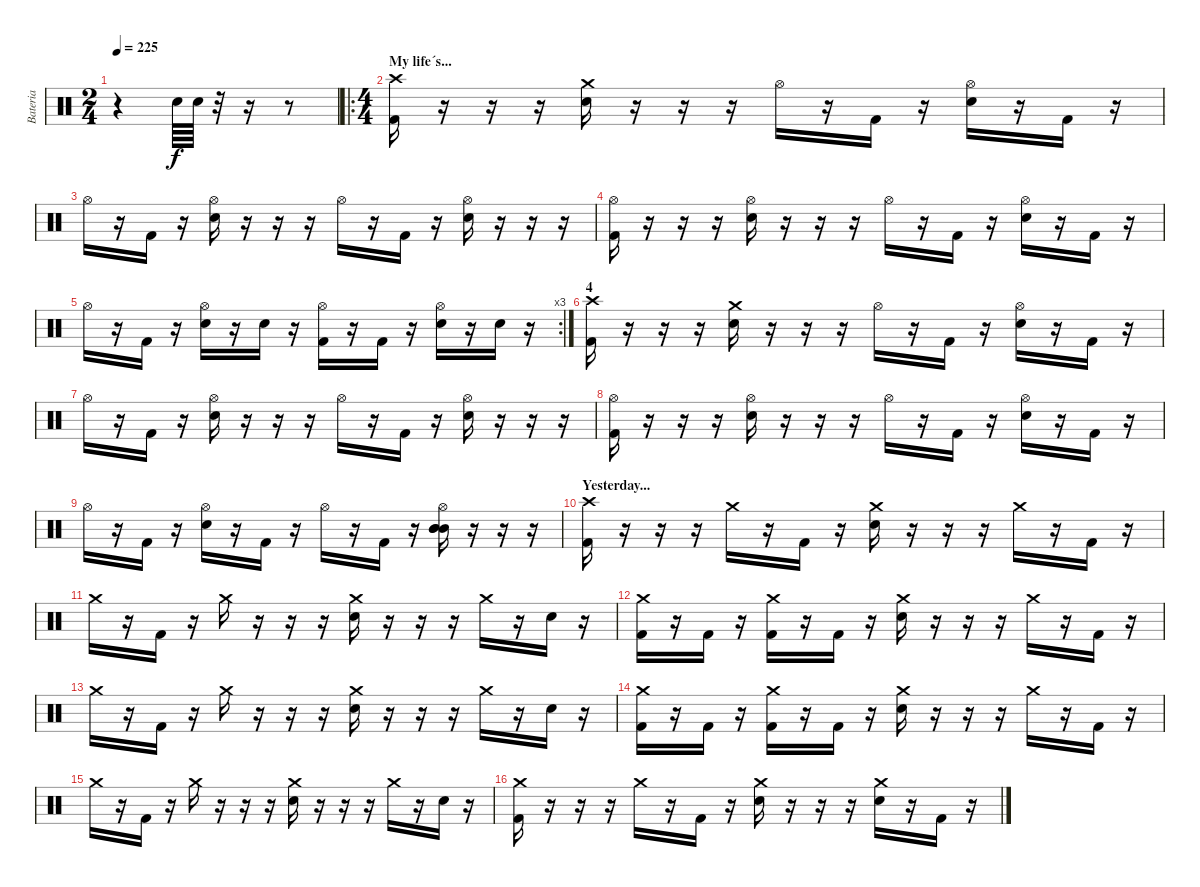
\track ("Bateria" "Bateria") {instrument percussion}
\staff {score}
\articulation defaults
\ts (2 4)
\tempo 225
\clef neutral
\ks c
r.4{dy f} "Electric Snare (hit)".64 "Electric Snare (hit)".64 r.32 r.16 r.8 |
\ro
\ts (4 4)
\section ("" "My life´s...")
("Crash high (hit)" "Kick (hit) 2").16 r.16 r.16 r.16 ("Crash medium (hit)" "Electric Snare (hit)").16 r.16 r.16 r.16 "Hi-Hat (open)".16 r.16 "Kick (hit) 2".16 r.16 ("Hi-Hat (open)" "Electric Snare (hit)").16 r.16 "Kick (hit) 2".16 r.16 |
"Hi-Hat (open)".16 r.16 "Kick (hit) 2".16 r.16 ("Hi-Hat (open)" "Electric Snare (hit)").16 r.16 r.16 r.16 "Hi-Hat (open)".16 r.16 "Kick (hit) 2".16 r.16 ("Hi-Hat (open)" "Electric Snare (hit)").16 r.16 r.16 r.16 |
("Hi-Hat (open)" "Kick (hit) 2").16 r.16 r.16 r.16 ("Hi-Hat (open)" "Electric Snare (hit)").16 r.16 r.16 r.16 "Hi-Hat (open)".16 r.16 "Kick (hit) 2".16 r.16 ("Hi-Hat (open)" "Electric Snare (hit)").16 r.16 "Kick (hit) 2".16 r.16 |
\rc 3 "Hi-Hat (open)".16
r.16 "Kick (hit) 2".16 r.16 ("Hi-Hat (open)" "Electric Snare (hit)").16 r.16 "Electric Snare (hit)".16 r.16 ("Hi-Hat (open)" "Kick (hit) 2").16 r.16 "Kick (hit) 2".16 r.16 ("Hi-Hat (open)" "Electric Snare (hit)").16 r.16 "Electric Snare (hit)".16 r.16 |
\section ("" "4")
("Crash high (hit)" "Kick (hit) 2").16 r.16 r.16 r.16 ("Crash medium (hit)" "Electric Snare (hit)").16 r.16 r.16 r.16 "Hi-Hat (open)".16 r.16 "Kick (hit) 2".16 r.16 ("Hi-Hat (open)" "Electric Snare (hit)").16 r.16 "Kick (hit) 2".16 r.16 |
"Hi-Hat (open)".16 r.16 "Kick (hit) 2".16 r.16 ("Hi-Hat (open)" "Electric Snare (hit)").16 r.16 r.16 r.16 "Hi-Hat (open)".16 r.16 "Kick (hit) 2".16 r.16 ("Hi-Hat (open)" "Electric Snare (hit)").16 r.16 r.16 r.16 |
("Hi-Hat (open)" "Kick (hit) 2").16 r.16 r.16 r.16 ("Hi-Hat (open)" "Electric Snare (hit)").16 r.16 r.16 r.16 "Hi-Hat (open)".16 r.16 "Kick (hit) 2".16 r.16 ("Hi-Hat (open)" "Electric Snare (hit)").16 r.16 "Kick (hit) 2".16 r.16 |
"Hi-Hat (open)".16 r.16 "Kick (hit) 2".16 r.16 ("Hi-Hat (open)" "Electric Snare (hit)").16 r.16 "Kick (hit) 2".16 r.16 "Hi-Hat (open)".16 r.16 "Kick (hit) 2".16 r.16 ("Hi-Hat (open)" "Mid Tom (hit)" "Mid Tom (hit)" "Mid Tom (hit)").16 r.16 r.16 r.16 |
\section ("" "Yesterday...")
("Crash high (hit)" "Kick (hit) 2").16 r.16 r.16 r.16 "Crash medium (hit)".16 r.16 "Kick (hit) 2".16 r.16 ("Crash medium (hit)" "Electric Snare (hit)").16 r.16 r.16 r.16 "Crash medium (hit)".16 r.16 "Kick (hit) 2".16 r.16 |
"Crash medium (hit)".16 r.16 "Kick (hit) 2".16 r.16 "Crash medium (hit)".16 r.16 r.16 r.16 ("Crash medium (hit)" "Electric Snare (hit)").16 r.16 r.16 r.16 "Crash medium (hit)".16 r.16 "Electric Snare (hit)".16 r.16 |
("Crash medium (hit)" "Kick (hit) 2").16 r.16 "Kick (hit) 2".16 r.16 ("Crash medium (hit)" "Kick (hit) 2").16 r.16 "Kick (hit) 2".16 r.16 ("Crash medium (hit)" "Electric Snare (hit)").16 r.16 r.16 r.16 "Crash medium (hit)".16 r.16 "Kick (hit) 2".16 r.16 |
"Crash medium (hit)".16 r.16 "Kick (hit) 2".16 r.16 "Crash medium (hit)".16 r.16 r.16 r.16 ("Crash medium (hit)" "Electric Snare (hit)").16 r.16 r.16 r.16 "Crash medium (hit)".16 r.16 "Electric Snare (hit)".16 r.16 |
("Crash medium (hit)" "Kick (hit) 2").16 r.16 "Kick (hit) 2".16 r.16 ("Crash medium (hit)" "Kick (hit) 2").16 r.16 "Kick (hit) 2".16 r.16 ("Crash medium (hit)" "Electric Snare (hit)").16 r.16 r.16 r.16 "Crash medium (hit)".16 r.16 "Kick (hit) 2".16 r.16 |
"Crash medium (hit)".16 r.16 "Kick (hit) 2".16 r.16 "Crash medium (hit)".16 r.16 r.16 r.16 ("Crash medium (hit)" "Electric Snare (hit)").16 r.16 r.16 r.16 "Crash medium (hit)".16 r.16 "Electric Snare (hit)".16 r.16 |
("Crash medium (hit)" "Kick (hit) 2").16 r.16 r.16 r.16 "Crash medium (hit)".16 r.16 "Kick (hit) 2".16 r.16 ("Crash medium (hit)" "Electric Snare (hit)").16 r.16 r.16 r.16 ("Crash medium (hit)" "Electric Snare (hit)").16 r.16 "Kick (hit) 2".16 r.16
